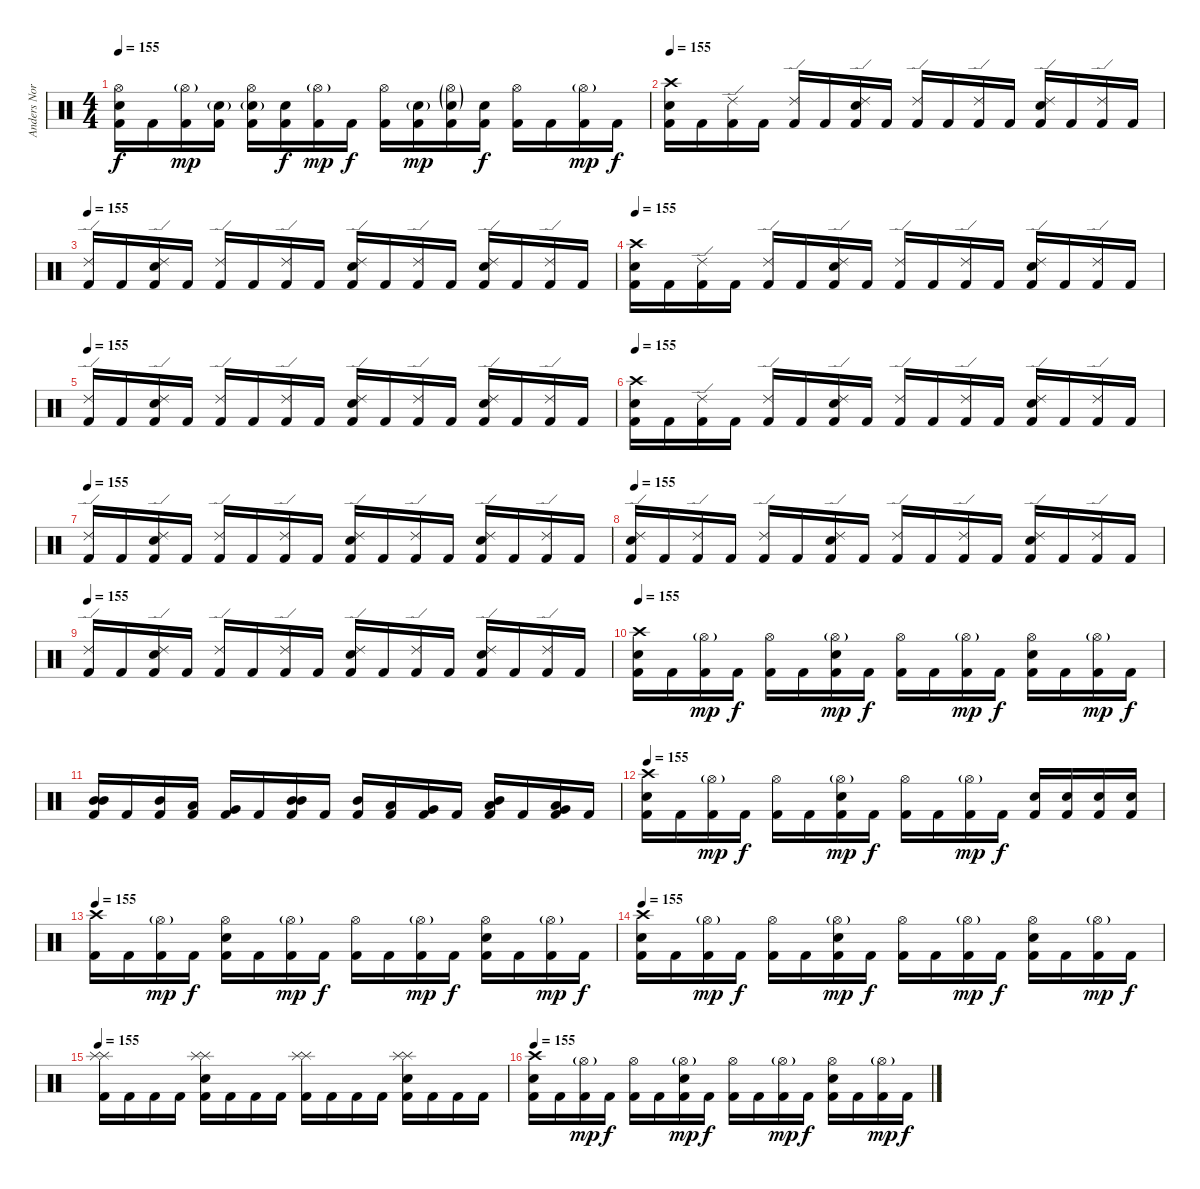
\track ("Anders Nordin" "Anders Nor") {instrument percussion}
\staff {score}
\articulation defaults
\ts (4 4)
\tempo 155
\clef neutral
\ks c
("Kick (hit) 2" "Electric Snare (hit)" "Hi-Hat (open)").16{dy f} "Kick (hit) 2".16 ("Kick (hit) 2" "Hi-Hat (open)"{g}).16{dy mp} ("Kick (hit) 2" "Electric Snare (hit)"{g}).16 ("Kick (hit) 2" "Electric Snare (hit)"{g} "Hi-Hat (open)").16 ("Kick (hit) 2" "Electric Snare (hit)").16{dy f} ("Kick (hit) 2" "Hi-Hat (open)"{g}).16{dy mp} "Kick (hit) 2".16{dy f} ("Kick (hit) 2" "Hi-Hat (open)").16 ("Kick (hit) 2" "Electric Snare (hit)"{g}).16{dy mp} ("Kick (hit) 2" "Electric Snare (hit)"{g} "Hi-Hat (open)"{g}).16 ("Kick (hit) 2" "Electric Snare (hit)").16{dy f} ("Kick (hit) 2" "Hi-Hat (open)").16 "Kick (hit) 2".16 ("Kick (hit) 2" "Hi-Hat (open)"{g}).16{dy mp} "Kick (hit) 2".16{dy f} |
\tempo 155
("Kick (hit) 2" "Electric Snare (hit)" "Crash high (hit)").16 "Kick (hit) 2".16 ("Kick (hit) 2" "Ride (edge) 2").16 "Kick (hit) 2".16 ("Kick (hit) 2" "Ride (edge) 2").16 "Kick (hit) 2".16 ("Kick (hit) 2" "Electric Snare (hit)" "Ride (edge) 2").16 "Kick (hit) 2".16 ("Kick (hit) 2" "Ride (edge) 2").16 "Kick (hit) 2".16 ("Kick (hit) 2" "Ride (edge) 2").16 "Kick (hit) 2".16 ("Kick (hit) 2" "Electric Snare (hit)" "Ride (edge) 2").16 "Kick (hit) 2".16 ("Kick (hit) 2" "Ride (edge) 2").16 "Kick (hit) 2".16 |
\tempo 155
("Kick (hit) 2" "Ride (edge) 2").16 "Kick (hit) 2".16 ("Kick (hit) 2" "Electric Snare (hit)" "Ride (edge) 2").16 "Kick (hit) 2".16 ("Kick (hit) 2" "Ride (edge) 2").16 "Kick (hit) 2".16 ("Kick (hit) 2" "Ride (edge) 2").16 "Kick (hit) 2".16 ("Kick (hit) 2" "Electric Snare (hit)" "Ride (edge) 2").16 "Kick (hit) 2".16 ("Kick (hit) 2" "Ride (edge) 2").16 "Kick (hit) 2".16 ("Kick (hit) 2" "Electric Snare (hit)" "Ride (edge) 2").16 "Kick (hit) 2".16 ("Kick (hit) 2" "Ride (edge) 2").16 "Kick (hit) 2".16 |
\tempo 155
("Kick (hit) 2" "Electric Snare (hit)" "Crash high (hit)").16 "Kick (hit) 2".16 ("Kick (hit) 2" "Ride (edge) 2").16 "Kick (hit) 2".16 ("Kick (hit) 2" "Ride (edge) 2").16 "Kick (hit) 2".16 ("Kick (hit) 2" "Electric Snare (hit)" "Ride (edge) 2").16 "Kick (hit) 2".16 ("Kick (hit) 2" "Ride (edge) 2").16 "Kick (hit) 2".16 ("Kick (hit) 2" "Ride (edge) 2").16 "Kick (hit) 2".16 ("Kick (hit) 2" "Electric Snare (hit)" "Ride (edge) 2").16 "Kick (hit) 2".16 ("Kick (hit) 2" "Ride (edge) 2").16 "Kick (hit) 2".16 |
\tempo 155
("Kick (hit) 2" "Ride (edge) 2").16 "Kick (hit) 2".16 ("Kick (hit) 2" "Electric Snare (hit)" "Ride (edge) 2").16 "Kick (hit) 2".16 ("Kick (hit) 2" "Ride (edge) 2").16 "Kick (hit) 2".16 ("Kick (hit) 2" "Ride (edge) 2").16 "Kick (hit) 2".16 ("Kick (hit) 2" "Electric Snare (hit)" "Ride (edge) 2").16 "Kick (hit) 2".16 ("Kick (hit) 2" "Ride (edge) 2").16 "Kick (hit) 2".16 ("Kick (hit) 2" "Electric Snare (hit)" "Ride (edge) 2").16 "Kick (hit) 2".16 ("Kick (hit) 2" "Ride (edge) 2").16 "Kick (hit) 2".16 |
\tempo 155
("Kick (hit) 2" "Electric Snare (hit)" "Crash high (hit)").16 "Kick (hit) 2".16 ("Kick (hit) 2" "Ride (edge) 2").16 "Kick (hit) 2".16 ("Kick (hit) 2" "Ride (edge) 2").16 "Kick (hit) 2".16 ("Kick (hit) 2" "Electric Snare (hit)" "Ride (edge) 2").16 "Kick (hit) 2".16 ("Kick (hit) 2" "Ride (edge) 2").16 "Kick (hit) 2".16 ("Kick (hit) 2" "Ride (edge) 2").16 "Kick (hit) 2".16 ("Kick (hit) 2" "Electric Snare (hit)" "Ride (edge) 2").16 "Kick (hit) 2".16 ("Kick (hit) 2" "Ride (edge) 2").16 "Kick (hit) 2".16 |
\tempo 155
("Kick (hit) 2" "Ride (edge) 2").16 "Kick (hit) 2".16 ("Kick (hit) 2" "Electric Snare (hit)" "Ride (edge) 2").16 "Kick (hit) 2".16 ("Kick (hit) 2" "Ride (edge) 2").16 "Kick (hit) 2".16 ("Kick (hit) 2" "Ride (edge) 2").16 "Kick (hit) 2".16 ("Kick (hit) 2" "Electric Snare (hit)" "Ride (edge) 2").16 "Kick (hit) 2".16 ("Kick (hit) 2" "Ride (edge) 2").16 "Kick (hit) 2".16 ("Kick (hit) 2" "Electric Snare (hit)" "Ride (edge) 2").16 "Kick (hit) 2".16 ("Kick (hit) 2" "Ride (edge) 2").16 "Kick (hit) 2".16 |
\tempo 155
("Kick (hit) 2" "Electric Snare (hit)" "Ride (edge) 2").16 "Kick (hit) 2".16 ("Kick (hit) 2" "Ride (edge) 2").16 "Kick (hit) 2".16 ("Kick (hit) 2" "Ride (edge) 2").16 "Kick (hit) 2".16 ("Kick (hit) 2" "Electric Snare (hit)" "Ride (edge) 2").16 "Kick (hit) 2".16 ("Kick (hit) 2" "Ride (edge) 2").16 "Kick (hit) 2".16 ("Kick (hit) 2" "Ride (edge) 2").16 "Kick (hit) 2".16 ("Kick (hit) 2" "Electric Snare (hit)" "Ride (edge) 2").16 "Kick (hit) 2".16 ("Kick (hit) 2" "Ride (edge) 2").16 "Kick (hit) 2".16 |
\tempo 155
("Kick (hit) 2" "Ride (edge) 2").16 "Kick (hit) 2".16 ("Kick (hit) 2" "Electric Snare (hit)" "Ride (edge) 2").16 "Kick (hit) 2".16 ("Kick (hit) 2" "Ride (edge) 2").16 "Kick (hit) 2".16 ("Kick (hit) 2" "Ride (edge) 2").16 "Kick (hit) 2".16 ("Kick (hit) 2" "Electric Snare (hit)" "Ride (edge) 2").16 "Kick (hit) 2".16 ("Kick (hit) 2" "Ride (edge) 2").16 "Kick (hit) 2".16 ("Kick (hit) 2" "Electric Snare (hit)" "Ride (edge) 2").16 "Kick (hit) 2".16 ("Kick (hit) 2" "Ride (edge) 2").16 "Kick (hit) 2".16 |
\tempo 155
("Kick (hit) 2" "Electric Snare (hit)" "Crash high (hit)").16 "Kick (hit) 2".16 ("Kick (hit) 2" "Hi-Hat (open)"{g}).16{dy mp} "Kick (hit) 2".16{dy f} ("Kick (hit) 2" "Hi-Hat (open)").16 "Kick (hit) 2".16 ("Kick (hit) 2" "Electric Snare (hit)" "Hi-Hat (open)"{g}).16{dy mp} "Kick (hit) 2".16{dy f} ("Kick (hit) 2" "Hi-Hat (open)").16 "Kick (hit) 2".16 ("Kick (hit) 2" "Hi-Hat (open)"{g}).16{dy mp} "Kick (hit) 2".16{dy f} ("Kick (hit) 2" "Electric Snare (hit)" "Hi-Hat (open)").16 "Kick (hit) 2".16 ("Kick (hit) 2" "Hi-Hat (open)"{g}).16{dy mp} "Kick (hit) 2".16{dy f} |
("Kick (hit) 2" "Mid Tom (hit)" "Mid Tom (hit)").16 "Kick (hit) 2".16 ("Kick (hit) 2" "Mid Tom (hit)").16 ("Kick (hit) 2" "Low Tom (hit)").16 ("Kick (hit) 2" "Very Low Tom (hit)").16 "Kick (hit) 2".16 ("Kick (hit) 2" "Mid Tom (hit)" "Mid Tom (hit)").16 "Kick (hit) 2".16 ("Kick (hit) 2" "Mid Tom (hit)").16 ("Kick (hit) 2" "Low Tom (hit)").16 ("Kick (hit) 2" "Very Low Tom (hit)").16 "Kick (hit) 2".16 ("Kick (hit) 2" "Low Tom (hit)" "Mid Tom (hit)").16 "Kick (hit) 2".16 ("Kick (hit) 2" "Low Tom (hit)" "Very Low Tom (hit)").16 "Kick (hit) 2".16 |
\tempo 155
("Kick (hit) 2" "Electric Snare (hit)" "Crash high (hit)").16 "Kick (hit) 2".16 ("Kick (hit) 2" "Hi-Hat (open)"{g}).16{dy mp} "Kick (hit) 2".16{dy f} ("Kick (hit) 2" "Hi-Hat (open)").16 "Kick (hit) 2".16 ("Kick (hit) 2" "Electric Snare (hit)" "Hi-Hat (open)"{g}).16{dy mp} "Kick (hit) 2".16{dy f} ("Kick (hit) 2" "Hi-Hat (open)").16 "Kick (hit) 2".16 ("Kick (hit) 2" "Hi-Hat (open)"{g}).16{dy mp} "Kick (hit) 2".16{dy f} ("Kick (hit) 2" "Electric Snare (hit)").16 ("Kick (hit) 2" "Electric Snare (hit)").16 ("Kick (hit) 2" "Electric Snare (hit)").16 ("Kick (hit) 2" "Electric Snare (hit)").16 |
\tempo 155
("Kick (hit) 2" "Crash high (hit)").16 "Kick (hit) 2".16 ("Kick (hit) 2" "Hi-Hat (open)"{g}).16{dy mp} "Kick (hit) 2".16{dy f} ("Kick (hit) 2" "Electric Snare (hit)" "Hi-Hat (open)").16 "Kick (hit) 2".16 ("Kick (hit) 2" "Hi-Hat (open)"{g}).16{dy mp} "Kick (hit) 2".16{dy f} ("Kick (hit) 2" "Hi-Hat (open)").16 "Kick (hit) 2".16 ("Kick (hit) 2" "Hi-Hat (open)"{g}).16{dy mp} "Kick (hit) 2".16{dy f} ("Kick (hit) 2" "Electric Snare (hit)" "Hi-Hat (open)").16 "Kick (hit) 2".16 ("Kick (hit) 2" "Hi-Hat (open)"{g}).16{dy mp} "Kick (hit) 2".16{dy f} |
\tempo 155
("Kick (hit) 2" "Electric Snare (hit)" "Crash high (hit)").16 "Kick (hit) 2".16 ("Kick (hit) 2" "Hi-Hat (open)"{g}).16{dy mp} "Kick (hit) 2".16{dy f} ("Kick (hit) 2" "Hi-Hat (open)").16 "Kick (hit) 2".16 ("Kick (hit) 2" "Electric Snare (hit)" "Hi-Hat (open)"{g}).16{dy mp} "Kick (hit) 2".16{dy f} ("Kick (hit) 2" "Hi-Hat (open)").16 "Kick (hit) 2".16 ("Kick (hit) 2" "Hi-Hat (open)"{g}).16{dy mp} "Kick (hit) 2".16{dy f} ("Kick (hit) 2" "Electric Snare (hit)" "Hi-Hat (open)").16 "Kick (hit) 2".16 ("Kick (hit) 2" "Hi-Hat (open)"{g}).16{dy mp} "Kick (hit) 2".16{dy f} |
\tempo 155
("Kick (hit) 2" "Splash (hit)" "Splash (hit)").16 "Kick (hit) 2".16 "Kick (hit) 2".16 "Kick (hit) 2".16 ("Kick (hit) 2" "Electric Snare (hit)" "Splash (hit)" "Splash (hit)").16 "Kick (hit) 2".16 "Kick (hit) 2".16 "Kick (hit) 2".16 ("Kick (hit) 2" "Splash (hit)" "Splash (hit)").16 "Kick (hit) 2".16 "Kick (hit) 2".16 "Kick (hit) 2".16 ("Kick (hit) 2" "Electric Snare (hit)" "Splash (hit)" "Splash (hit)").16 "Kick (hit) 2".16 "Kick (hit) 2".16 "Kick (hit) 2".16 |
\tempo 155
("Kick (hit) 2" "Electric Snare (hit)" "Crash high (hit)").16 "Kick (hit) 2".16 ("Kick (hit) 2" "Hi-Hat (open)"{g}).16{dy mp} "Kick (hit) 2".16{dy f} ("Kick (hit) 2" "Hi-Hat (open)").16 "Kick (hit) 2".16 ("Kick (hit) 2" "Electric Snare (hit)" "Hi-Hat (open)"{g}).16{dy mp} "Kick (hit) 2".16{dy f} ("Kick (hit) 2" "Hi-Hat (open)").16 "Kick (hit) 2".16 ("Kick (hit) 2" "Hi-Hat (open)"{g}).16{dy mp} "Kick (hit) 2".16{dy f} ("Kick (hit) 2" "Electric Snare (hit)" "Hi-Hat (open)").16 "Kick (hit) 2".16 ("Kick (hit) 2" "Hi-Hat (open)"{g}).16{dy mp} "Kick (hit) 2".16{dy f}
